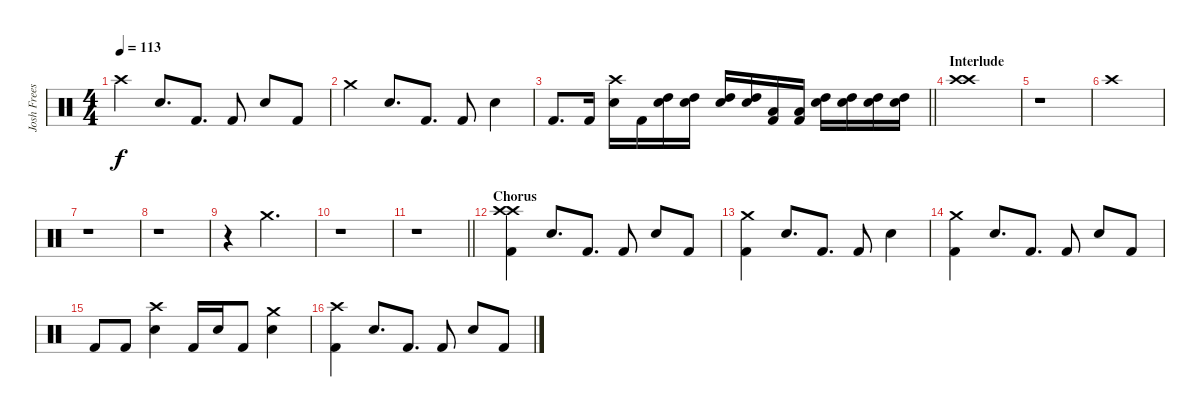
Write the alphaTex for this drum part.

\track ("Josh Freese (Studio Drummer)" "Josh Frees") {instrument percussion}
\staff {score}
\articulation defaults
\ts (4 4)
\tempo 113
\clef neutral
\ks c "Crash high (hit)".4{dy f} "Electric Snare (hit)".8{d} "Kick (hit) 2".8{d} "Kick (hit) 2".8 "Electric Snare (hit)".8 "Kick (hit) 2".8
|
"Crash medium (hit)".4 "Electric Snare (hit)".8{d} "Kick (hit) 2".8{d} "Kick (hit) 2".8 "Electric Snare (hit)".4 |
\barLineRight lightlight "Kick (hit) 2".8{d} "Kick (hit) 2".16
("Crash high (hit)" "Electric Snare (hit)").16 "Kick (hit) 2".16 ("Electric Snare (hit)" "High Tom (hit)").16 ("Electric Snare (hit)" "High Tom (hit)").16 ("Electric Snare (hit)" "High Tom (hit)").16 ("Electric Snare (hit)" "High Tom (hit)").16 ("Kick (hit) 2" "Low Tom (hit)").16 ("Kick (hit) 2" "Low Tom (hit)").16 ("Electric Snare (hit)" "High Tom (hit)").16 ("Electric Snare (hit)" "High Tom (hit)").16 ("Electric Snare (hit)" "High Tom (hit)").16 ("Electric Snare (hit)" "High Tom (hit)").16 |
\section ("" "Interlude")
("Crash high (hit)" "Crash high (hit)").1 |
r.1 |
"Crash high (hit)".1{volume 6} |
r.1 |
r.1 |
r.4 "Crash medium (hit)".2{d} |
r.1 |
\barLineRight lightlight
r.1 |
\section ("" "Chorus")
("Crash high (hit)" "Crash high (hit)" "Kick (hit) 2").4{volume 13} "Electric Snare (hit)".8{d} "Kick (hit) 2".8{d} "Kick (hit) 2".8 "Electric Snare (hit)".8 "Kick (hit) 2".8 |
("Crash medium (hit)" "Kick (hit) 2").4 "Electric Snare (hit)".8{d} "Kick (hit) 2".8{d} "Kick (hit) 2".8 "Electric Snare (hit)".4 |
("Crash medium (hit)" "Kick (hit) 2").4 "Electric Snare (hit)".8{d} "Kick (hit) 2".8{d} "Kick (hit) 2".8 "Electric Snare (hit)".8 "Kick (hit) 2".8 |
"Kick (hit) 2".8 "Kick (hit) 2".8 ("Crash high (hit)" "Electric Snare (hit)").4 "Kick (hit) 2".16 "Electric Snare (hit)".16 "Kick (hit) 2".8 ("Crash medium (hit)" "Electric Snare (hit)").4 |
("Crash high (hit)" "Kick (hit) 2").4 "Electric Snare (hit)".8{d} "Kick (hit) 2".8{d} "Kick (hit) 2".8 "Electric Snare (hit)".8 "Kick (hit) 2".8
